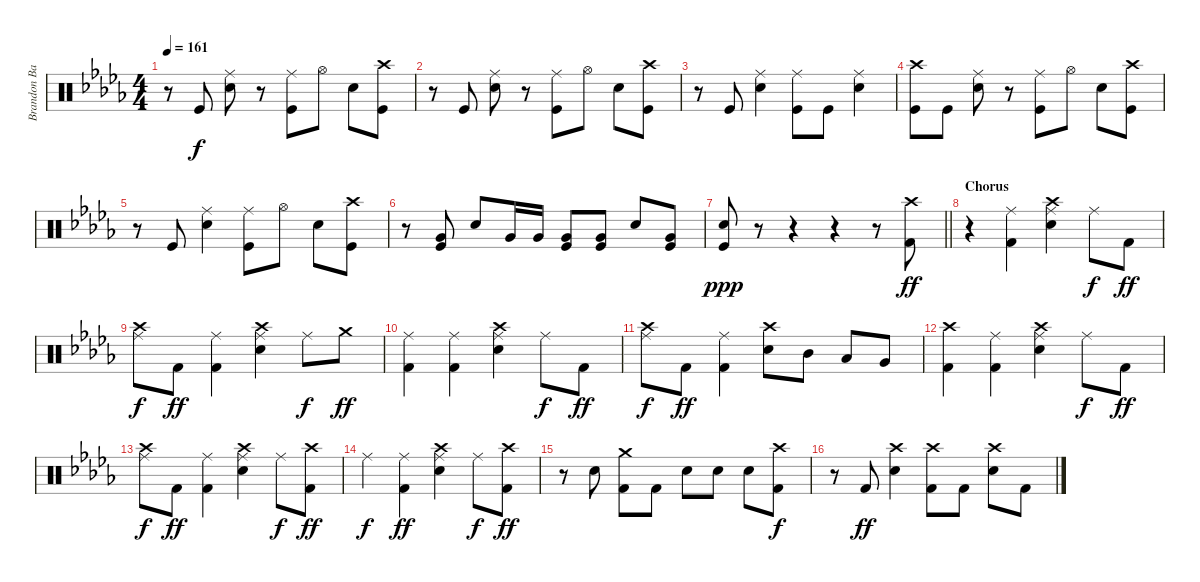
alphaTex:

\track ("Brandon Barnes - Drums" "Brandon Ba") {instrument percussion}
\staff {score}
\articulation defaults
\ts (4 4)
\tempo 161
\clef neutral
\ks db
r.8{dy f} "Kick (hit)".8 ("Ride (middle)" "Snare (hit) 2").8 r.8 ("Ride (middle)" "Kick (hit)").8 "Hi-Hat (open)".8 "Snare (hit) 2".8 ("Crash high (hit)" "Kick (hit)").8 |
r.8 "Kick (hit)".8 ("Ride (middle)" "Snare (hit) 2").8 r.8 ("Ride (middle)" "Kick (hit)").8 "Hi-Hat (open)".8 "Snare (hit) 2".8 ("Crash high (hit)" "Kick (hit)").8 |
r.8 "Kick (hit)".8 ("Ride (middle)" "Snare (hit) 2").4 ("Ride (middle)" "Kick (hit)").8 "Kick (hit)".8 ("Ride (middle)" "Snare (hit) 2").4 |
("Crash high (hit)" "Kick (hit)").8 "Kick (hit)".8 ("Ride (middle)" "Snare (hit) 2").8 r.8 ("Ride (middle)" "Kick (hit)").8 "Hi-Hat (open)".8 "Snare (hit) 2".8 ("Crash high (hit)" "Kick (hit)").8 |
r.8 "Kick (hit)".8 ("Ride (middle)" "Snare (hit) 2").4 ("Ride (middle)" "Kick (hit)").8 "Hi-Hat (open)".8 "Snare (hit) 2".8 ("Crash high (hit)" "Kick (hit)").8 |
r.8 ("Very Low Tom (hit)" "Kick (hit)").8 "Snare (hit) 2".8 "Very Low Tom (hit)".16 "Very Low Tom (hit)".16 ("Very Low Tom (hit)" "Kick (hit)").8 ("Very Low Tom (hit)" "Kick (hit)").8 "Snare (hit) 2".8 ("Very Low Tom (hit)" "Kick (hit)").8 |
\barLineRight lightlight
("Kick (hit)" "Snare (hit) 2").8{dy ppp} r.8 r.4 r.4 r.8 ("Kick (hit) 2" "Crash high (hit)").8{dy ff} |
\section ("" "Chorus")
r.4 ("Kick (hit) 2" "Ride (middle)").4 ("Snare (hit) 2" "Crash high (hit)" "Ride (middle)").4 "Ride (middle)".8{dy f} "Kick (hit) 2".8{dy ff} |
("Crash high (hit)" "Ride (middle)").8{dy f} "Kick (hit) 2".8{dy ff} ("Kick (hit) 2" "Ride (middle)").4 ("Snare (hit) 2" "Crash high (hit)" "Ride (middle)").4 "Ride (middle)".8{dy f} "Crash medium (hit)".8{dy ff} |
("Kick (hit) 2" "Ride (middle)").4 ("Kick (hit) 2" "Ride (middle)").4 ("Snare (hit) 2" "Crash high (hit)" "Ride (middle)").4 "Ride (middle)".8{dy f} "Kick (hit) 2".8{dy ff} |
("Crash high (hit)" "Ride (middle)").8{dy f} "Kick (hit) 2".8{dy ff} ("Kick (hit) 2" "Ride (middle)").4 ("Crash high (hit)" "Snare (hit) 2").8 "Mid Tom (hit)".8 "Low Tom (hit)".8 "Very Low Tom (hit)".8 |
("Kick (hit) 2" "Crash high (hit)").4 ("Kick (hit) 2" "Ride (middle)").4 ("Snare (hit) 2" "Crash high (hit)" "Ride (middle)").4 "Ride (middle)".8{dy f} "Kick (hit) 2".8{dy ff} |
("Crash high (hit)" "Ride (middle)").8{dy f} "Kick (hit) 2".8{dy ff} ("Kick (hit) 2" "Ride (middle)").4 ("Snare (hit) 2" "Crash high (hit)" "Ride (middle)").4 "Ride (middle)".8{dy f} ("Kick (hit) 2" "Crash high (hit)").8{dy ff} |
"Ride (middle)".4{dy f} ("Ride (middle)" "Kick (hit) 2").4{dy ff} ("Snare (hit) 2" "Crash high (hit)" "Ride (middle)").4 "Ride (middle)".8{dy f} ("Kick (hit) 2" "Crash high (hit)").8{dy ff} |
r.8 "Snare (hit) 2".8 ("Kick (hit) 2" "Crash medium (hit)").8 "Kick (hit) 2".8 "Snare (hit) 2".8 "Snare (hit) 2".8 "Snare (hit) 2".8 ("Crash high (hit)" "Kick (hit) 2").8{dy f} |
r.8 "Kick (hit) 2".8{dy ff} ("Snare (hit) 2" "Crash high (hit)").4 ("Kick (hit) 2" "Crash high (hit)").8 "Kick (hit) 2".8 ("Snare (hit) 2" "Crash high (hit)").8 "Kick (hit) 2".8
